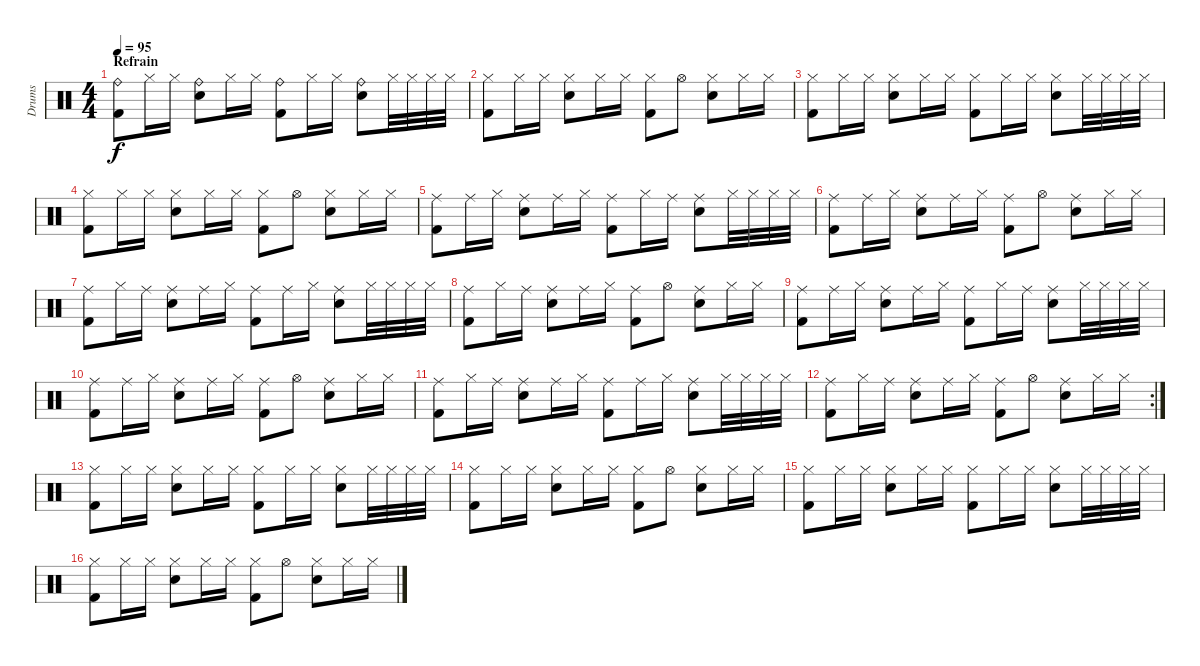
\track ("Drums" "Drums") {instrument percussion}
\staff {score}
\articulation defaults
\ts (4 4)
\section ("" "Refrain")
\tempo 95
\clef neutral
\ks c
("Ride (bell)" "Kick (hit) 2").8{dy f} "Hi-Hat (closed)".16 "Hi-Hat (closed)".16 ("Ride (bell)" "Electric Snare (hit)").8 "Hi-Hat (closed)".16 "Hi-Hat (closed)".16 ("Ride (bell)" "Kick (hit) 2").8 "Hi-Hat (closed)".16 "Hi-Hat (closed)".16 ("Ride (bell)" "Electric Snare (hit)").8 "Hi-Hat (closed)".32 "Hi-Hat (closed)".32 "Hi-Hat (closed)".32 "Hi-Hat (closed)".32 |
("Hi-Hat (closed)" "Kick (hit) 2").8 "Hi-Hat (closed)".16 "Hi-Hat (closed)".16 ("Hi-Hat (closed)" "Electric Snare (hit)").8 "Hi-Hat (closed)".16 "Hi-Hat (closed)".16 ("Hi-Hat (closed)" "Kick (hit) 2").8 "Hi-Hat (open)".8 ("Hi-Hat (closed)" "Electric Snare (hit)").8 "Hi-Hat (closed)".16 "Hi-Hat (closed)".16 |
("Hi-Hat (closed)" "Kick (hit) 2").8 "Hi-Hat (closed)".16 "Hi-Hat (closed)".16 ("Hi-Hat (closed)" "Electric Snare (hit)").8 "Hi-Hat (closed)".16 "Hi-Hat (closed)".16 ("Hi-Hat (closed)" "Kick (hit) 2").8 "Hi-Hat (closed)".16 "Hi-Hat (closed)".16 ("Hi-Hat (closed)" "Electric Snare (hit)").8 "Hi-Hat (closed)".32 "Hi-Hat (closed)".32 "Hi-Hat (closed)".32 "Hi-Hat (closed)".32 |
("Hi-Hat (closed)" "Kick (hit) 2").8 "Hi-Hat (closed)".16 "Hi-Hat (closed)".16 ("Hi-Hat (closed)" "Electric Snare (hit)").8 "Hi-Hat (closed)".16 "Hi-Hat (closed)".16 ("Hi-Hat (closed)" "Kick (hit) 2").8 "Hi-Hat (open)".8 ("Hi-Hat (closed)" "Electric Snare (hit)").8 "Hi-Hat (closed)".16 "Hi-Hat (closed)".16 |
("Ride (middle)" "Kick (hit) 2").8 "Ride (middle)".16 "Hi-Hat (closed)".16 ("Ride (middle)" "Electric Snare (hit)").8 "Ride (middle)".16 "Hi-Hat (closed)".16 ("Ride (middle)" "Kick (hit) 2").8 "Hi-Hat (closed)".16 "Ride (middle)".16 ("Ride (middle)" "Electric Snare (hit)").8 "Hi-Hat (closed)".32 "Hi-Hat (closed)".32 "Hi-Hat (closed)".32 "Hi-Hat (closed)".32 |
("Ride (middle)" "Kick (hit) 2").8 "Ride (middle)".16 "Hi-Hat (closed)".16 ("Ride (middle)" "Electric Snare (hit)").8 "Ride (middle)".16 "Hi-Hat (closed)".16 ("Ride (middle)" "Kick (hit) 2").8 "Hi-Hat (open)".8 ("Ride (middle)" "Electric Snare (hit)").8 "Hi-Hat (closed)".16 "Hi-Hat (closed)".16 |
("Ride (middle)" "Kick (hit) 2").8 "Hi-Hat (closed)".16 "Ride (middle)".16 ("Ride (middle)" "Electric Snare (hit)").8 "Ride (middle)".16 "Hi-Hat (closed)".16 ("Ride (middle)" "Kick (hit) 2").8 "Ride (middle)".16 "Hi-Hat (closed)".16 ("Ride (middle)" "Electric Snare (hit)").8 "Hi-Hat (closed)".32 "Hi-Hat (closed)".32 "Hi-Hat (closed)".32 "Hi-Hat (closed)".32 |
("Ride (middle)" "Kick (hit) 2").8 "Hi-Hat (closed)".16 "Ride (middle)".16 ("Ride (middle)" "Electric Snare (hit)").8 "Ride (middle)".16 "Hi-Hat (closed)".16 ("Ride (middle)" "Kick (hit) 2").8 "Hi-Hat (open)".8 ("Ride (middle)" "Electric Snare (hit)").8 "Hi-Hat (closed)".16 "Hi-Hat (closed)".16 |
("Ride (middle)" "Kick (hit) 2").8 "Ride (middle)".16 "Hi-Hat (closed)".16 ("Ride (middle)" "Electric Snare (hit)").8 "Ride (middle)".16 "Hi-Hat (closed)".16 ("Ride (middle)" "Kick (hit) 2").8 "Hi-Hat (closed)".16 "Ride (middle)".16 ("Ride (middle)" "Electric Snare (hit)").8 "Hi-Hat (closed)".32 "Hi-Hat (closed)".32 "Hi-Hat (closed)".32 "Hi-Hat (closed)".32 |
("Ride (middle)" "Kick (hit) 2").8 "Ride (middle)".16 "Hi-Hat (closed)".16 ("Ride (middle)" "Electric Snare (hit)").8 "Ride (middle)".16 "Hi-Hat (closed)".16 ("Ride (middle)" "Kick (hit) 2").8 "Hi-Hat (open)".8 ("Ride (middle)" "Electric Snare (hit)").8 "Hi-Hat (closed)".16 "Hi-Hat (closed)".16 |
("Ride (middle)" "Kick (hit) 2").8 "Hi-Hat (closed)".16 "Ride (middle)".16 ("Ride (middle)" "Electric Snare (hit)").8 "Ride (middle)".16 "Hi-Hat (closed)".16 ("Ride (middle)" "Kick (hit) 2").8 "Ride (middle)".16 "Hi-Hat (closed)".16 ("Ride (middle)" "Electric Snare (hit)").8 "Hi-Hat (closed)".32 "Hi-Hat (closed)".32 "Hi-Hat (closed)".32 "Hi-Hat (closed)".32 |
\rc 2
("Ride (middle)" "Kick (hit) 2").8 "Hi-Hat (closed)".16 "Ride (middle)".16 ("Ride (middle)" "Electric Snare (hit)").8 "Ride (middle)".16 "Hi-Hat (closed)".16 ("Ride (middle)" "Kick (hit) 2").8 "Hi-Hat (open)".8 ("Ride (middle)" "Electric Snare (hit)").8 "Hi-Hat (closed)".16 "Hi-Hat (closed)".16 |
("Hi-Hat (closed)" "Kick (hit) 2").8 "Hi-Hat (closed)".16 "Hi-Hat (closed)".16 ("Hi-Hat (closed)" "Electric Snare (hit)").8 "Hi-Hat (closed)".16 "Hi-Hat (closed)".16 ("Hi-Hat (closed)" "Kick (hit) 2").8 "Hi-Hat (closed)".16 "Hi-Hat (closed)".16 ("Hi-Hat (closed)" "Electric Snare (hit)").8 "Hi-Hat (closed)".32 "Hi-Hat (closed)".32 "Hi-Hat (closed)".32 "Hi-Hat (closed)".32 |
("Hi-Hat (closed)" "Kick (hit) 2").8 "Hi-Hat (closed)".16 "Hi-Hat (closed)".16 ("Hi-Hat (closed)" "Electric Snare (hit)").8 "Hi-Hat (closed)".16 "Hi-Hat (closed)".16 ("Hi-Hat (closed)" "Kick (hit) 2").8 "Hi-Hat (open)".8 ("Hi-Hat (closed)" "Electric Snare (hit)").8 "Hi-Hat (closed)".16 "Hi-Hat (closed)".16 |
("Hi-Hat (closed)" "Kick (hit) 2").8 "Hi-Hat (closed)".16 "Hi-Hat (closed)".16 ("Hi-Hat (closed)" "Electric Snare (hit)").8 "Hi-Hat (closed)".16 "Hi-Hat (closed)".16 ("Hi-Hat (closed)" "Kick (hit) 2").8 "Hi-Hat (closed)".16 "Hi-Hat (closed)".16 ("Hi-Hat (closed)" "Electric Snare (hit)").8 "Hi-Hat (closed)".32 "Hi-Hat (closed)".32 "Hi-Hat (closed)".32 "Hi-Hat (closed)".32 |
("Hi-Hat (closed)" "Kick (hit) 2").8 "Hi-Hat (closed)".16 "Hi-Hat (closed)".16 ("Hi-Hat (closed)" "Electric Snare (hit)").8 "Hi-Hat (closed)".16 "Hi-Hat (closed)".16 ("Hi-Hat (closed)" "Kick (hit) 2").8 "Hi-Hat (open)".8 ("Hi-Hat (closed)" "Electric Snare (hit)").8 "Hi-Hat (closed)".16 "Hi-Hat (closed)".16
